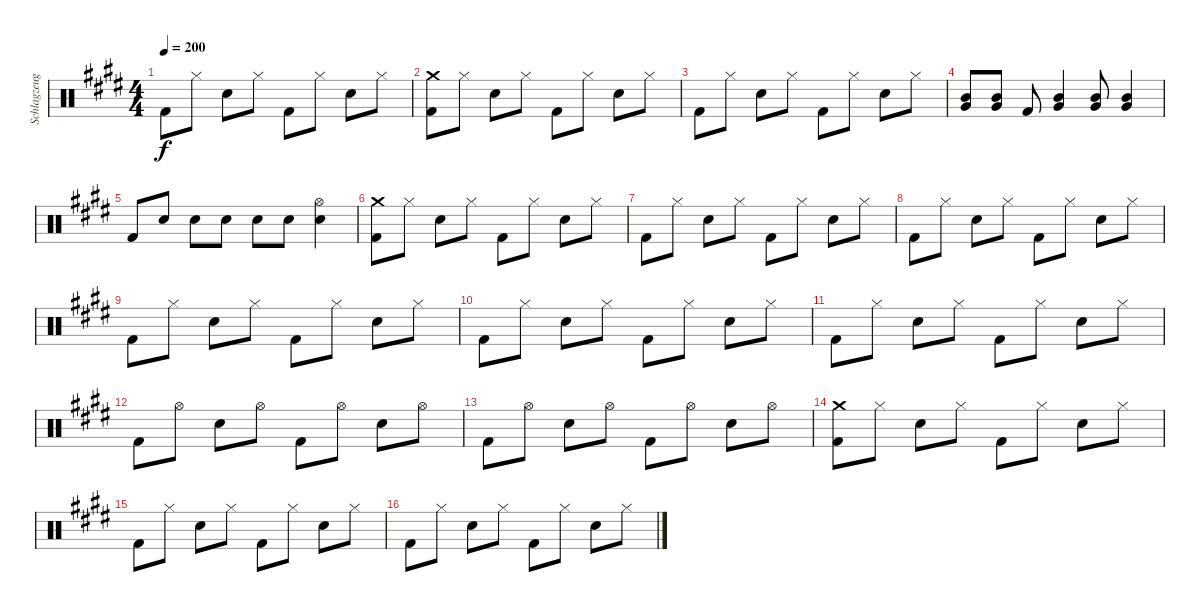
\track ("Schlagzeug" "Schlagzeug") {instrument percussion}
\staff {score}
\articulation defaults
\ts (4 4)
\tempo 200
\clef neutral
\ks e "Kick (hit) 2".8{dy f} "Hi-Hat (closed)".8 "Snare (hit) 2".8 "Hi-Hat (closed)".8 "Kick (hit) 2".8 "Hi-Hat (closed)".8 "Snare (hit) 2".8 "Hi-Hat (closed)".8
|
("Crash medium (hit)" "Kick (hit) 2").8 "Hi-Hat (closed)".8 "Snare (hit) 2".8 "Hi-Hat (closed)".8 "Kick (hit) 2".8 "Hi-Hat (closed)".8 "Snare (hit) 2".8 "Hi-Hat (closed)".8 |
"Kick (hit) 2".8 "Hi-Hat (closed)".8 "Snare (hit) 2".8 "Hi-Hat (closed)".8 "Kick (hit) 2".8 "Hi-Hat (closed)".8 "Snare (hit) 2".8 "Hi-Hat (closed)".8 |
("Mid Tom (hit)" "Very Low Tom (hit)").8 ("Mid Tom (hit)" "Very Low Tom (hit)").8 "Kick (hit) 2".8 ("Mid Tom (hit)" "Very Low Tom (hit)").4 ("Mid Tom (hit)" "Very Low Tom (hit)").8 ("Mid Tom (hit)" "Very Low Tom (hit)").4 |
"Kick (hit) 2".8 "Snare (hit) 2".8 "Snare (hit) 2".8 "Snare (hit) 2".8 "Snare (hit) 2".8 "Snare (hit) 2".8 ("Hi-Hat (open)" "Snare (hit) 2").4 |
("Crash medium (hit)" "Kick (hit) 2").8 "Hi-Hat (closed)".8 "Snare (hit) 2".8 "Hi-Hat (closed)".8 "Kick (hit) 2".8 "Hi-Hat (closed)".8 "Snare (hit) 2".8 "Hi-Hat (closed)".8 |
"Kick (hit) 2".8 "Hi-Hat (closed)".8 "Snare (hit) 2".8 "Hi-Hat (closed)".8 "Kick (hit) 2".8 "Hi-Hat (closed)".8 "Snare (hit) 2".8 "Hi-Hat (closed)".8 |
"Kick (hit) 2".8 "Hi-Hat (closed)".8 "Snare (hit) 2".8 "Hi-Hat (closed)".8 "Kick (hit) 2".8 "Hi-Hat (closed)".8 "Snare (hit) 2".8 "Hi-Hat (closed)".8 |
"Kick (hit) 2".8 "Hi-Hat (closed)".8 "Snare (hit) 2".8 "Hi-Hat (closed)".8 "Kick (hit) 2".8 "Hi-Hat (closed)".8 "Snare (hit) 2".8 "Hi-Hat (closed)".8 |
"Kick (hit) 2".8 "Hi-Hat (closed)".8 "Snare (hit) 2".8 "Hi-Hat (closed)".8 "Kick (hit) 2".8 "Hi-Hat (closed)".8 "Snare (hit) 2".8 "Hi-Hat (closed)".8 |
"Kick (hit) 2".8 "Hi-Hat (closed)".8 "Snare (hit) 2".8 "Hi-Hat (closed)".8 "Kick (hit) 2".8 "Hi-Hat (closed)".8 "Snare (hit) 2".8 "Hi-Hat (closed)".8 |
"Kick (hit) 2".8 "Hi-Hat (open)".8 "Snare (hit) 2".8 "Hi-Hat (open)".8 "Kick (hit) 2".8 "Hi-Hat (open)".8 "Snare (hit) 2".8 "Hi-Hat (open)".8 |
"Kick (hit) 2".8 "Hi-Hat (open)".8 "Snare (hit) 2".8 "Hi-Hat (open)".8 "Kick (hit) 2".8 "Hi-Hat (open)".8 "Snare (hit) 2".8 "Hi-Hat (open)".8 |
("Crash medium (hit)" "Kick (hit) 2").8 "Hi-Hat (closed)".8 "Snare (hit) 2".8 "Hi-Hat (closed)".8 "Kick (hit) 2".8 "Hi-Hat (closed)".8 "Snare (hit) 2".8 "Hi-Hat (closed)".8 |
"Kick (hit) 2".8 "Hi-Hat (closed)".8 "Snare (hit) 2".8 "Hi-Hat (closed)".8 "Kick (hit) 2".8 "Hi-Hat (closed)".8 "Snare (hit) 2".8 "Hi-Hat (closed)".8 |
"Kick (hit) 2".8 "Hi-Hat (closed)".8 "Snare (hit) 2".8 "Hi-Hat (closed)".8 "Kick (hit) 2".8 "Hi-Hat (closed)".8 "Snare (hit) 2".8 "Hi-Hat (closed)".8
